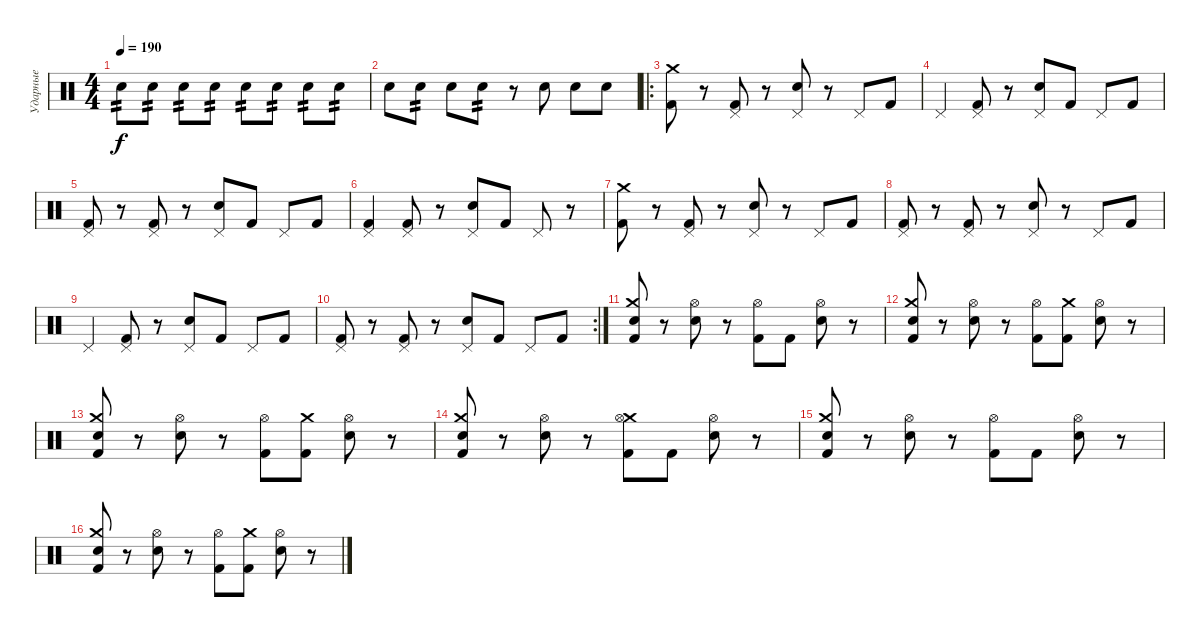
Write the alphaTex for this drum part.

\track ("Ударные" "Ударные") {instrument percussion}
\staff {score}
\articulation defaults
\ts (4 4)
\tempo 190
\clef neutral
\ks c "Electric Snare (hit)".8{tp 2 dy f} "Electric Snare (hit)".8{tp 2} "Electric Snare (hit)".8{tp 2} "Electric Snare (hit)".8{tp 2} "Electric Snare (hit)".8{tp 2} "Electric Snare (hit)".8{tp 2} "Electric Snare (hit)".8{tp 2} "Electric Snare (hit)".8{tp 2}
|
"Electric Snare (hit)".8 "Electric Snare (hit)".8{tp 2} "Electric Snare (hit)".8 "Electric Snare (hit)".8{tp 2} r.8 "Electric Snare (hit)".8 "Electric Snare (hit)".8 "Electric Snare (hit)".8 |
\ro
("Crash medium (hit)" "Kick (hit) 2").8 r.8 ("Pedal Hi-Hat (hit)" "Kick (hit) 2").8 r.8 ("Pedal Hi-Hat (hit)" "Electric Snare (hit)").8 r.8 "Pedal Hi-Hat (hit)".8 "Kick (hit) 2".8 |
"Pedal Hi-Hat (hit)".4 ("Pedal Hi-Hat (hit)" "Kick (hit) 2").8 r.8 ("Pedal Hi-Hat (hit)" "Electric Snare (hit)").8 "Kick (hit) 2".8 "Pedal Hi-Hat (hit)".8 "Kick (hit) 2".8 |
("Pedal Hi-Hat (hit)" "Kick (hit) 2").8 r.8 ("Pedal Hi-Hat (hit)" "Kick (hit) 2").8 r.8 ("Pedal Hi-Hat (hit)" "Electric Snare (hit)").8 "Kick (hit) 2".8 "Pedal Hi-Hat (hit)".8 "Kick (hit) 2".8 |
("Pedal Hi-Hat (hit)" "Kick (hit) 2").4 ("Pedal Hi-Hat (hit)" "Kick (hit) 2").8 r.8 ("Pedal Hi-Hat (hit)" "Electric Snare (hit)").8 "Kick (hit) 2".8 "Pedal Hi-Hat (hit)".8 r.8 |
("Crash medium (hit)" "Kick (hit) 2").8 r.8 ("Pedal Hi-Hat (hit)" "Kick (hit) 2").8 r.8 ("Pedal Hi-Hat (hit)" "Electric Snare (hit)").8 r.8 "Pedal Hi-Hat (hit)".8 "Kick (hit) 2".8 |
("Pedal Hi-Hat (hit)" "Kick (hit) 2").8 r.8 ("Pedal Hi-Hat (hit)" "Kick (hit) 2").8 r.8 ("Pedal Hi-Hat (hit)" "Electric Snare (hit)").8 r.8 "Pedal Hi-Hat (hit)".8 "Kick (hit) 2".8 |
"Pedal Hi-Hat (hit)".4 ("Pedal Hi-Hat (hit)" "Kick (hit) 2").8 r.8 ("Pedal Hi-Hat (hit)" "Electric Snare (hit)").8 "Kick (hit) 2".8 "Pedal Hi-Hat (hit)".8 "Kick (hit) 2".8 |
\rc 2
("Pedal Hi-Hat (hit)" "Kick (hit) 2").8 r.8 ("Pedal Hi-Hat (hit)" "Kick (hit) 2").8 r.8 ("Pedal Hi-Hat (hit)" "Electric Snare (hit)").8 "Kick (hit) 2".8 "Pedal Hi-Hat (hit)".8 "Kick (hit) 2".8 |
("Crash medium (hit)" "Electric Snare (hit)" "Kick (hit) 2").8 r.8 ("Electric Snare (hit)" "Hi-Hat (open)").8 r.8 ("Kick (hit) 2" "Hi-Hat (open)").8 "Kick (hit) 2".8 ("Electric Snare (hit)" "Hi-Hat (open)").8 r.8 |
("Crash medium (hit)" "Electric Snare (hit)" "Kick (hit) 2").8 r.8 ("Electric Snare (hit)" "Hi-Hat (open)").8 r.8 ("Kick (hit) 2" "Hi-Hat (open)").8 ("Kick (hit) 2" "Crash medium (hit)").8 ("Electric Snare (hit)" "Hi-Hat (open)").8 r.8 |
("Crash medium (hit)" "Electric Snare (hit)" "Kick (hit) 2").8 r.8 ("Electric Snare (hit)" "Hi-Hat (open)").8 r.8 ("Kick (hit) 2" "Hi-Hat (open)").8 ("Kick (hit) 2" "Crash medium (hit)").8 ("Electric Snare (hit)" "Hi-Hat (open)").8 r.8 |
("Crash medium (hit)" "Electric Snare (hit)" "Kick (hit) 2").8 r.8 ("Electric Snare (hit)" "Hi-Hat (open)").8 r.8 ("Kick (hit) 2" "Crash medium (hit)" "Hi-Hat (open)").8 "Kick (hit) 2".8 ("Electric Snare (hit)" "Hi-Hat (open)").8 r.8 |
("Crash medium (hit)" "Electric Snare (hit)" "Kick (hit) 2").8 r.8 ("Electric Snare (hit)" "Hi-Hat (open)").8 r.8 ("Kick (hit) 2" "Hi-Hat (open)").8 "Kick (hit) 2".8 ("Electric Snare (hit)" "Hi-Hat (open)").8 r.8 |
("Crash medium (hit)" "Electric Snare (hit)" "Kick (hit) 2").8 r.8 ("Electric Snare (hit)" "Hi-Hat (open)").8 r.8 ("Kick (hit) 2" "Hi-Hat (open)").8 ("Kick (hit) 2" "Crash medium (hit)").8 ("Electric Snare (hit)" "Hi-Hat (open)").8 r.8
